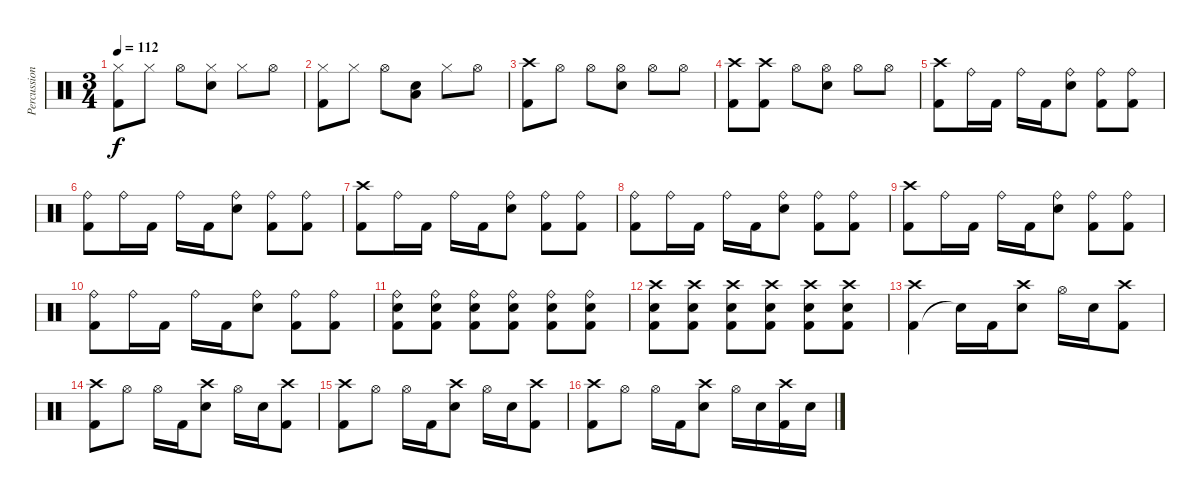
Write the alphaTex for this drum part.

\track ("Percussions" "Percussion") {instrument percussion}
\staff {score}
\articulation defaults
\ts (3 4)
\tempo 112
\clef neutral
\ks c
("Kick (hit) 2" "Hi-Hat (closed)").8{dy f} "Hi-Hat (closed)".8 "Hi-Hat (open)".8 ("Electric Snare (hit)" "Hi-Hat (closed)").8 "Hi-Hat (closed)".8 "Hi-Hat (open)".8 |
("Kick (hit) 2" "Hi-Hat (closed)").8 "Hi-Hat (closed)".8 "Hi-Hat (open)".8 ("Electric Snare (hit)" "Low Floor Tom (hit)").8 "Hi-Hat (closed)".8 "Hi-Hat (open)".8 |
("Kick (hit) 2" "Crash high (hit)").8 "Hi-Hat (open)".8 "Hi-Hat (open)".8 ("Electric Snare (hit)" "Hi-Hat (open)").8 "Hi-Hat (open)".8 "Hi-Hat (open)".8 |
("Kick (hit) 2" "Crash high (hit)").8 ("Kick (hit) 2" "Crash high (hit)").8 "Hi-Hat (open)".8 ("Electric Snare (hit)" "Hi-Hat (open)").8 "Hi-Hat (open)".8 "Hi-Hat (open)".8 |
("Kick (hit) 2" "Crash high (hit)").8 "Ride (bell)".16 "Kick (hit) 2".16 "Ride (bell)".16 "Kick (hit) 2".16 ("Electric Snare (hit)" "Ride (bell)").8 ("Kick (hit) 2" "Ride (bell)").8 ("Kick (hit) 2" "Ride (bell)").8 |
("Kick (hit) 2" "Ride (bell)").8 "Ride (bell)".16 "Kick (hit) 2".16 "Ride (bell)".16 "Kick (hit) 2".16 ("Electric Snare (hit)" "Ride (bell)").8 ("Kick (hit) 2" "Ride (bell)").8 ("Kick (hit) 2" "Ride (bell)").8 |
("Kick (hit) 2" "Crash high (hit)").8 "Ride (bell)".16 "Kick (hit) 2".16 "Ride (bell)".16 "Kick (hit) 2".16 ("Electric Snare (hit)" "Ride (bell)").8 ("Kick (hit) 2" "Ride (bell)").8 ("Kick (hit) 2" "Ride (bell)").8 |
("Kick (hit) 2" "Ride (bell)").8 "Ride (bell)".16 "Kick (hit) 2".16 "Ride (bell)".16 "Kick (hit) 2".16 ("Electric Snare (hit)" "Ride (bell)").8 ("Kick (hit) 2" "Ride (bell)").8 ("Kick (hit) 2" "Ride (bell)").8 |
("Kick (hit) 2" "Crash high (hit)").8 "Ride (bell)".16 "Kick (hit) 2".16 "Ride (bell)".16 "Kick (hit) 2".16 ("Electric Snare (hit)" "Ride (bell)").8 ("Kick (hit) 2" "Ride (bell)").8 ("Kick (hit) 2" "Ride (bell)").8 |
("Kick (hit) 2" "Ride (bell)").8 "Ride (bell)".16 "Kick (hit) 2".16 "Ride (bell)".16 "Kick (hit) 2".16 ("Electric Snare (hit)" "Ride (bell)").8 ("Kick (hit) 2" "Ride (bell)").8 ("Kick (hit) 2" "Ride (bell)").8 |
("Kick (hit) 2" "Electric Snare (hit)" "Ride (bell)").8 ("Kick (hit) 2" "Electric Snare (hit)" "Ride (bell)").8 ("Kick (hit) 2" "Electric Snare (hit)" "Ride (bell)").8 ("Kick (hit) 2" "Electric Snare (hit)" "Ride (bell)").8 ("Kick (hit) 2" "Electric Snare (hit)" "Ride (bell)").8 ("Kick (hit) 2" "Electric Snare (hit)" "Ride (bell)").8 |
("Kick (hit) 2" "Electric Snare (hit)" "Crash high (hit)").8 ("Kick (hit) 2" "Electric Snare (hit)" "Crash high (hit)").8 ("Kick (hit) 2" "Electric Snare (hit)" "Crash high (hit)").8 ("Kick (hit) 2" "Electric Snare (hit)" "Crash high (hit)").8 ("Kick (hit) 2" "Electric Snare (hit)" "Crash high (hit)").8 ("Kick (hit) 2" "Electric Snare (hit)" "Crash high (hit)").8 |
("Kick (hit) 2" "Crash high (hit)").4 "Snare (hit)"{t}.16 "Kick (hit) 2".16 ("Electric Snare (hit)" "Crash high (hit)").8 "Hi-Hat (open)".16 "Electric Snare (hit)".16 ("Kick (hit) 2" "Crash high (hit)").8 |
("Kick (hit) 2" "Crash high (hit)").8 "Hi-Hat (open)".8 "Hi-Hat (open)".16 "Kick (hit) 2".16 ("Electric Snare (hit)" "Crash high (hit)").8 "Hi-Hat (open)".16 "Electric Snare (hit)".16 ("Kick (hit) 2" "Crash high (hit)").8 |
("Kick (hit) 2" "Crash high (hit)").8 "Hi-Hat (open)".8 "Hi-Hat (open)".16 "Kick (hit) 2".16 ("Electric Snare (hit)" "Crash high (hit)").8 "Hi-Hat (open)".16 "Electric Snare (hit)".16 ("Kick (hit) 2" "Crash high (hit)").8 |
("Kick (hit) 2" "Crash high (hit)").8 "Hi-Hat (open)".8 "Hi-Hat (open)".16 "Kick (hit) 2".16 ("Electric Snare (hit)" "Crash high (hit)").8 "Hi-Hat (open)".16 "Electric Snare (hit)".16 ("Kick (hit) 2" "Crash high (hit)").16 "Electric Snare (hit)".16
